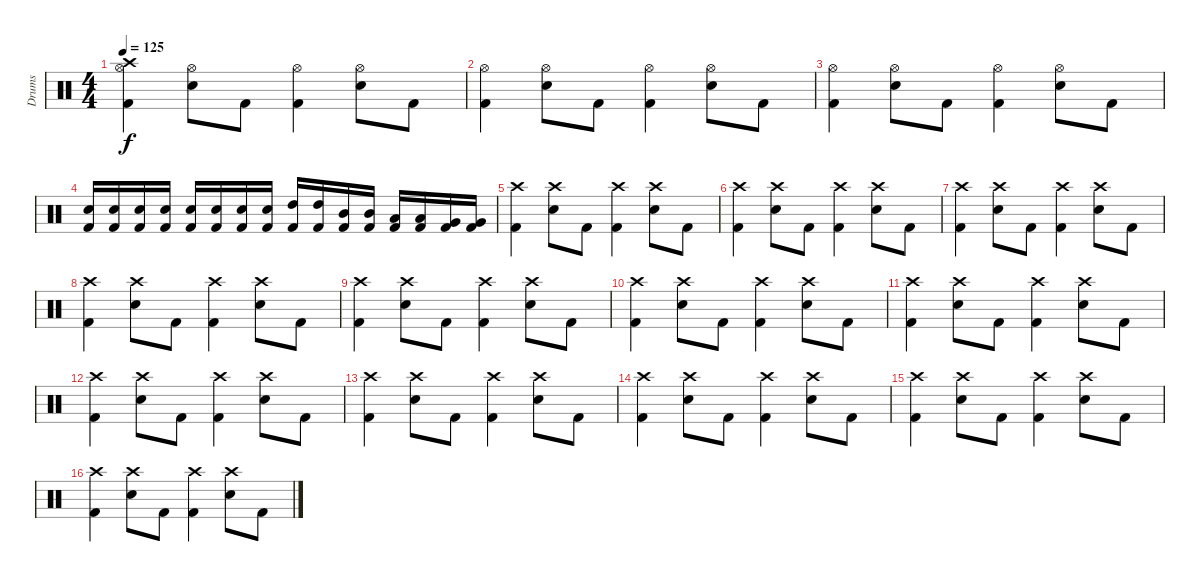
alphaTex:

\track ("Drums" "Drums") {instrument percussion}
\staff {score}
\articulation defaults
\ts (4 4)
\tempo 125
\clef neutral
\ks c
("Crash high (hit)" "Hi-Hat (open)" "Kick (hit) 2").4{dy f} ("Hi-Hat (open)" "Snare (hit) 2").8 "Kick (hit) 2".8 ("Hi-Hat (open)" "Kick (hit) 2").4 ("Hi-Hat (open)" "Snare (hit) 2").8 "Kick (hit) 2".8 |
("Hi-Hat (open)" "Kick (hit) 2").4 ("Hi-Hat (open)" "Snare (hit) 2").8 "Kick (hit) 2".8 ("Hi-Hat (open)" "Kick (hit) 2").4 ("Hi-Hat (open)" "Snare (hit) 2").8 "Kick (hit) 2".8 |
("Hi-Hat (open)" "Kick (hit) 2").4 ("Hi-Hat (open)" "Snare (hit) 2").8 "Kick (hit) 2".8 ("Hi-Hat (open)" "Kick (hit) 2").4 ("Hi-Hat (open)" "Snare (hit) 2").8 "Kick (hit) 2".8 |
("Snare (hit) 2" "Kick (hit) 2").16 ("Snare (hit) 2" "Kick (hit) 2").16 ("Snare (hit) 2" "Kick (hit) 2").16 ("Snare (hit) 2" "Kick (hit) 2").16 ("Snare (hit) 2" "Kick (hit) 2").16 ("Snare (hit) 2" "Kick (hit) 2").16 ("Snare (hit) 2" "Kick (hit) 2").16 ("Snare (hit) 2" "Kick (hit) 2").16 ("High Tom (hit)" "Kick (hit) 2").16 ("High Tom (hit)" "Kick (hit) 2").16 ("Mid Tom (hit)" "Kick (hit) 2").16 ("Mid Tom (hit)" "Kick (hit) 2").16 ("Low Tom (hit)" "Kick (hit) 2").16 ("Low Tom (hit)" "Kick (hit) 2").16 ("Very Low Tom (hit)" "Kick (hit) 2").16 ("Very Low Tom (hit)" "Kick (hit) 2").16 |
("Crash high (hit)" "Kick (hit) 2").4 ("Crash high (hit)" "Snare (hit) 2").8 "Kick (hit) 2".8 ("Crash high (hit)" "Kick (hit) 2").4 ("Crash high (hit)" "Snare (hit) 2").8 "Kick (hit) 2".8 |
("Crash high (hit)" "Kick (hit) 2").4 ("Crash high (hit)" "Snare (hit) 2").8 "Kick (hit) 2".8 ("Crash high (hit)" "Kick (hit) 2").4 ("Crash high (hit)" "Snare (hit) 2").8 "Kick (hit) 2".8 |
("Crash high (hit)" "Kick (hit) 2").4 ("Crash high (hit)" "Snare (hit) 2").8 "Kick (hit) 2".8 ("Crash high (hit)" "Kick (hit) 2").4 ("Crash high (hit)" "Snare (hit) 2").8 "Kick (hit) 2".8 |
("Crash high (hit)" "Kick (hit) 2").4 ("Crash high (hit)" "Snare (hit) 2").8 "Kick (hit) 2".8 ("Crash high (hit)" "Kick (hit) 2").4 ("Crash high (hit)" "Snare (hit) 2").8 "Kick (hit) 2".8 |
("Crash high (hit)" "Kick (hit) 2").4 ("Crash high (hit)" "Snare (hit) 2").8 "Kick (hit) 2".8 ("Crash high (hit)" "Kick (hit) 2").4 ("Crash high (hit)" "Snare (hit) 2").8 "Kick (hit) 2".8 |
("Crash high (hit)" "Kick (hit) 2").4 ("Crash high (hit)" "Snare (hit) 2").8 "Kick (hit) 2".8 ("Crash high (hit)" "Kick (hit) 2").4 ("Crash high (hit)" "Snare (hit) 2").8 "Kick (hit) 2".8 |
("Crash high (hit)" "Kick (hit) 2").4 ("Crash high (hit)" "Snare (hit) 2").8 "Kick (hit) 2".8 ("Crash high (hit)" "Kick (hit) 2").4 ("Crash high (hit)" "Snare (hit) 2").8 "Kick (hit) 2".8 |
("Crash high (hit)" "Kick (hit) 2").4 ("Crash high (hit)" "Snare (hit) 2").8 "Kick (hit) 2".8 ("Crash high (hit)" "Kick (hit) 2").4 ("Crash high (hit)" "Snare (hit) 2").8 "Kick (hit) 2".8 |
("Crash high (hit)" "Kick (hit) 2").4 ("Crash high (hit)" "Snare (hit) 2").8 "Kick (hit) 2".8 ("Crash high (hit)" "Kick (hit) 2").4 ("Crash high (hit)" "Snare (hit) 2").8 "Kick (hit) 2".8 |
("Crash high (hit)" "Kick (hit) 2").4 ("Crash high (hit)" "Snare (hit) 2").8 "Kick (hit) 2".8 ("Crash high (hit)" "Kick (hit) 2").4 ("Crash high (hit)" "Snare (hit) 2").8 "Kick (hit) 2".8 |
("Crash high (hit)" "Kick (hit) 2").4 ("Crash high (hit)" "Snare (hit) 2").8 "Kick (hit) 2".8 ("Crash high (hit)" "Kick (hit) 2").4 ("Crash high (hit)" "Snare (hit) 2").8 "Kick (hit) 2".8 |
("Crash high (hit)" "Kick (hit) 2").4 ("Crash high (hit)" "Snare (hit) 2").8 "Kick (hit) 2".8 ("Crash high (hit)" "Kick (hit) 2").4 ("Crash high (hit)" "Snare (hit) 2").8 "Kick (hit) 2".8
